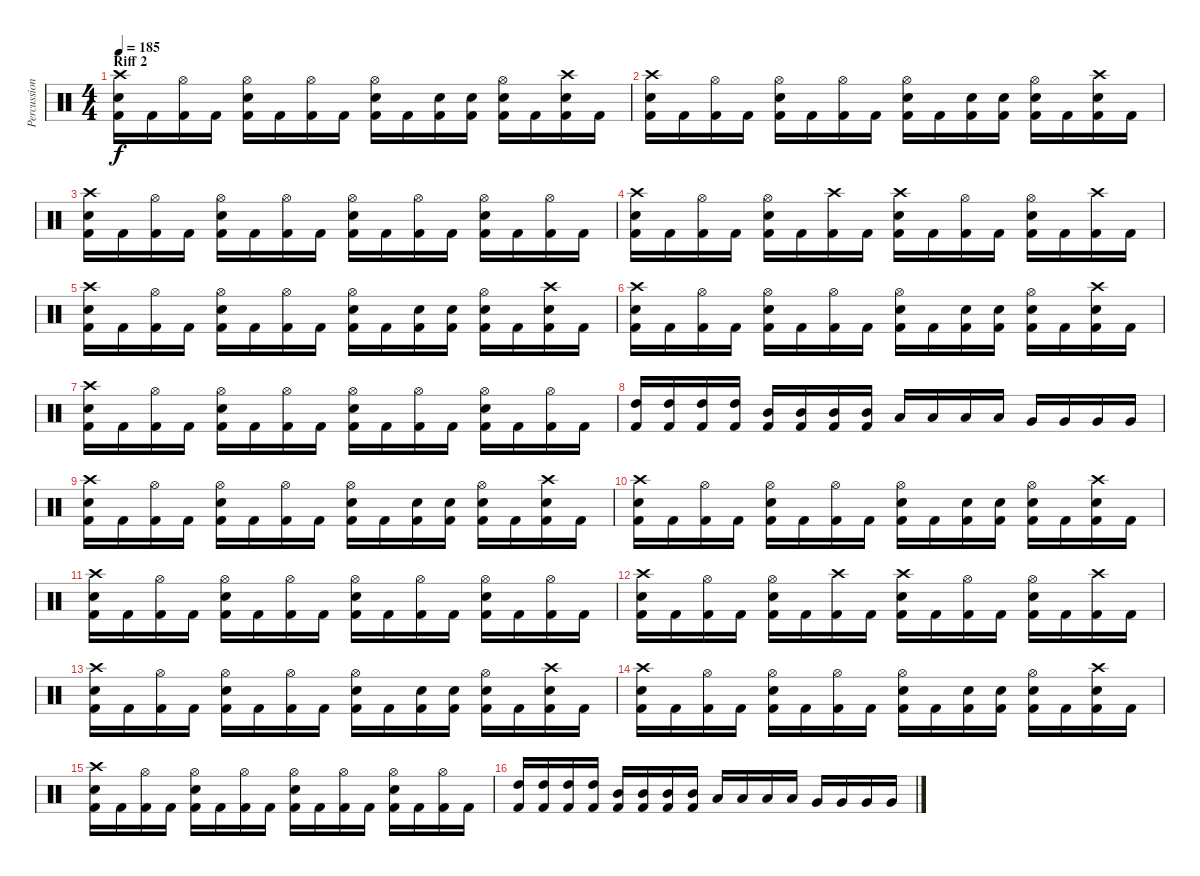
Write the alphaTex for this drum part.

\track ("Percussion" "Percussion") {instrument percussion}
\staff {score}
\articulation defaults
\ts (4 4)
\section ("" "Riff 2")
\tempo 185
\clef neutral
\ks c
("Crash high (hit)" "Snare (hit) 2" "Kick (hit) 2").16{dy f} "Kick (hit) 2".16 ("Hi-Hat (open)" "Kick (hit) 2").16 "Kick (hit) 2".16 ("Hi-Hat (open)" "Snare (hit) 2" "Kick (hit) 2").16 "Kick (hit) 2".16 ("Hi-Hat (open)" "Kick (hit) 2").16 "Kick (hit) 2".16 ("Hi-Hat (open)" "Snare (hit) 2" "Kick (hit) 2").16 "Kick (hit) 2".16 ("Snare (hit) 2" "Kick (hit) 2").16 ("Snare (hit) 2" "Kick (hit) 2").16 ("Hi-Hat (open)" "Snare (hit) 2" "Kick (hit) 2").16 "Kick (hit) 2".16 ("Crash high (hit)" "Snare (hit) 2" "Kick (hit) 2").16 "Kick (hit) 2".16 |
("Crash high (hit)" "Snare (hit) 2" "Kick (hit) 2").16 "Kick (hit) 2".16 ("Hi-Hat (open)" "Kick (hit) 2").16 "Kick (hit) 2".16 ("Hi-Hat (open)" "Snare (hit) 2" "Kick (hit) 2").16 "Kick (hit) 2".16 ("Hi-Hat (open)" "Kick (hit) 2").16 "Kick (hit) 2".16 ("Hi-Hat (open)" "Snare (hit) 2" "Kick (hit) 2").16 "Kick (hit) 2".16 ("Snare (hit) 2" "Kick (hit) 2").16 ("Snare (hit) 2" "Kick (hit) 2").16 ("Hi-Hat (open)" "Snare (hit) 2" "Kick (hit) 2").16 "Kick (hit) 2".16 ("Crash high (hit)" "Snare (hit) 2" "Kick (hit) 2").16 "Kick (hit) 2".16 |
("Crash high (hit)" "Snare (hit) 2" "Kick (hit) 2").16 "Kick (hit) 2".16 ("Hi-Hat (open)" "Kick (hit) 2").16 "Kick (hit) 2".16 ("Hi-Hat (open)" "Snare (hit) 2" "Kick (hit) 2").16 "Kick (hit) 2".16 ("Hi-Hat (open)" "Kick (hit) 2").16 "Kick (hit) 2".16 ("Hi-Hat (open)" "Snare (hit) 2" "Kick (hit) 2").16 "Kick (hit) 2".16 ("Hi-Hat (open)" "Kick (hit) 2").16 "Kick (hit) 2".16 ("Hi-Hat (open)" "Snare (hit) 2" "Kick (hit) 2").16 "Kick (hit) 2".16 ("Hi-Hat (open)" "Kick (hit) 2").16 "Kick (hit) 2".16 |
("Crash high (hit)" "Snare (hit) 2" "Kick (hit) 2").16 "Kick (hit) 2".16 ("Hi-Hat (open)" "Kick (hit) 2").16 "Kick (hit) 2".16 ("Hi-Hat (open)" "Snare (hit) 2" "Kick (hit) 2").16 "Kick (hit) 2".16 ("Crash high (hit)" "Kick (hit) 2").16 "Kick (hit) 2".16 ("Crash high (hit)" "Snare (hit) 2" "Kick (hit) 2").16 "Kick (hit) 2".16 ("Hi-Hat (open)" "Kick (hit) 2").16 "Kick (hit) 2".16 ("Hi-Hat (open)" "Snare (hit) 2" "Kick (hit) 2").16 "Kick (hit) 2".16 ("Crash high (hit)" "Kick (hit) 2").16 "Kick (hit) 2".16 |
("Crash high (hit)" "Snare (hit) 2" "Kick (hit) 2").16 "Kick (hit) 2".16 ("Hi-Hat (open)" "Kick (hit) 2").16 "Kick (hit) 2".16 ("Hi-Hat (open)" "Snare (hit) 2" "Kick (hit) 2").16 "Kick (hit) 2".16 ("Hi-Hat (open)" "Kick (hit) 2").16 "Kick (hit) 2".16 ("Hi-Hat (open)" "Snare (hit) 2" "Kick (hit) 2").16 "Kick (hit) 2".16 ("Snare (hit) 2" "Kick (hit) 2").16 ("Snare (hit) 2" "Kick (hit) 2").16 ("Hi-Hat (open)" "Snare (hit) 2" "Kick (hit) 2").16 "Kick (hit) 2".16 ("Crash high (hit)" "Snare (hit) 2" "Kick (hit) 2").16 "Kick (hit) 2".16 |
("Crash high (hit)" "Snare (hit) 2" "Kick (hit) 2").16 "Kick (hit) 2".16 ("Hi-Hat (open)" "Kick (hit) 2").16 "Kick (hit) 2".16 ("Hi-Hat (open)" "Snare (hit) 2" "Kick (hit) 2").16 "Kick (hit) 2".16 ("Hi-Hat (open)" "Kick (hit) 2").16 "Kick (hit) 2".16 ("Hi-Hat (open)" "Snare (hit) 2" "Kick (hit) 2").16 "Kick (hit) 2".16 ("Snare (hit) 2" "Kick (hit) 2").16 ("Snare (hit) 2" "Kick (hit) 2").16 ("Hi-Hat (open)" "Snare (hit) 2" "Kick (hit) 2").16 "Kick (hit) 2".16 ("Crash high (hit)" "Snare (hit) 2" "Kick (hit) 2").16 "Kick (hit) 2".16 |
("Crash high (hit)" "Snare (hit) 2" "Kick (hit) 2").16 "Kick (hit) 2".16 ("Hi-Hat (open)" "Kick (hit) 2").16 "Kick (hit) 2".16 ("Hi-Hat (open)" "Snare (hit) 2" "Kick (hit) 2").16 "Kick (hit) 2".16 ("Hi-Hat (open)" "Kick (hit) 2").16 "Kick (hit) 2".16 ("Hi-Hat (open)" "Snare (hit) 2" "Kick (hit) 2").16 "Kick (hit) 2".16 ("Hi-Hat (open)" "Kick (hit) 2").16 "Kick (hit) 2".16 ("Hi-Hat (open)" "Snare (hit) 2" "Kick (hit) 2").16 "Kick (hit) 2".16 ("Hi-Hat (open)" "Kick (hit) 2").16 "Kick (hit) 2".16 |
("High Tom (hit)" "Kick (hit) 2").16 ("High Tom (hit)" "Kick (hit) 2").16 ("High Tom (hit)" "Kick (hit) 2").16 ("High Tom (hit)" "Kick (hit) 2").16 ("Mid Tom (hit)" "Kick (hit) 2").16 ("Mid Tom (hit)" "Kick (hit) 2").16 ("Mid Tom (hit)" "Kick (hit) 2").16 ("Mid Tom (hit)" "Kick (hit) 2").16 "Low Tom (hit)".16 "Low Tom (hit)".16 "Low Tom (hit)".16 "Low Tom (hit)".16 "Very Low Tom (hit)".16 "Very Low Tom (hit)".16 "Very Low Tom (hit)".16 "Very Low Tom (hit)".16 |
("Crash high (hit)" "Snare (hit) 2" "Kick (hit) 2").16 "Kick (hit) 2".16 ("Hi-Hat (open)" "Kick (hit) 2").16 "Kick (hit) 2".16 ("Hi-Hat (open)" "Snare (hit) 2" "Kick (hit) 2").16 "Kick (hit) 2".16 ("Hi-Hat (open)" "Kick (hit) 2").16 "Kick (hit) 2".16 ("Hi-Hat (open)" "Snare (hit) 2" "Kick (hit) 2").16 "Kick (hit) 2".16 ("Snare (hit) 2" "Kick (hit) 2").16 ("Snare (hit) 2" "Kick (hit) 2").16 ("Hi-Hat (open)" "Snare (hit) 2" "Kick (hit) 2").16 "Kick (hit) 2".16 ("Crash high (hit)" "Snare (hit) 2" "Kick (hit) 2").16 "Kick (hit) 2".16 |
("Crash high (hit)" "Snare (hit) 2" "Kick (hit) 2").16 "Kick (hit) 2".16 ("Hi-Hat (open)" "Kick (hit) 2").16 "Kick (hit) 2".16 ("Hi-Hat (open)" "Snare (hit) 2" "Kick (hit) 2").16 "Kick (hit) 2".16 ("Hi-Hat (open)" "Kick (hit) 2").16 "Kick (hit) 2".16 ("Hi-Hat (open)" "Snare (hit) 2" "Kick (hit) 2").16 "Kick (hit) 2".16 ("Snare (hit) 2" "Kick (hit) 2").16 ("Snare (hit) 2" "Kick (hit) 2").16 ("Hi-Hat (open)" "Snare (hit) 2" "Kick (hit) 2").16 "Kick (hit) 2".16 ("Crash high (hit)" "Snare (hit) 2" "Kick (hit) 2").16 "Kick (hit) 2".16 |
("Crash high (hit)" "Snare (hit) 2" "Kick (hit) 2").16 "Kick (hit) 2".16 ("Hi-Hat (open)" "Kick (hit) 2").16 "Kick (hit) 2".16 ("Hi-Hat (open)" "Snare (hit) 2" "Kick (hit) 2").16 "Kick (hit) 2".16 ("Hi-Hat (open)" "Kick (hit) 2").16 "Kick (hit) 2".16 ("Hi-Hat (open)" "Snare (hit) 2" "Kick (hit) 2").16 "Kick (hit) 2".16 ("Hi-Hat (open)" "Kick (hit) 2").16 "Kick (hit) 2".16 ("Hi-Hat (open)" "Snare (hit) 2" "Kick (hit) 2").16 "Kick (hit) 2".16 ("Hi-Hat (open)" "Kick (hit) 2").16 "Kick (hit) 2".16 |
("Crash high (hit)" "Snare (hit) 2" "Kick (hit) 2").16 "Kick (hit) 2".16 ("Hi-Hat (open)" "Kick (hit) 2").16 "Kick (hit) 2".16 ("Hi-Hat (open)" "Snare (hit) 2" "Kick (hit) 2").16 "Kick (hit) 2".16 ("Crash high (hit)" "Kick (hit) 2").16 "Kick (hit) 2".16 ("Crash high (hit)" "Snare (hit) 2" "Kick (hit) 2").16 "Kick (hit) 2".16 ("Hi-Hat (open)" "Kick (hit) 2").16 "Kick (hit) 2".16 ("Hi-Hat (open)" "Snare (hit) 2" "Kick (hit) 2").16 "Kick (hit) 2".16 ("Crash high (hit)" "Kick (hit) 2").16 "Kick (hit) 2".16 |
("Crash high (hit)" "Snare (hit) 2" "Kick (hit) 2").16 "Kick (hit) 2".16 ("Hi-Hat (open)" "Kick (hit) 2").16 "Kick (hit) 2".16 ("Hi-Hat (open)" "Snare (hit) 2" "Kick (hit) 2").16 "Kick (hit) 2".16 ("Hi-Hat (open)" "Kick (hit) 2").16 "Kick (hit) 2".16 ("Hi-Hat (open)" "Snare (hit) 2" "Kick (hit) 2").16 "Kick (hit) 2".16 ("Snare (hit) 2" "Kick (hit) 2").16 ("Snare (hit) 2" "Kick (hit) 2").16 ("Hi-Hat (open)" "Snare (hit) 2" "Kick (hit) 2").16 "Kick (hit) 2".16 ("Crash high (hit)" "Snare (hit) 2" "Kick (hit) 2").16 "Kick (hit) 2".16 |
("Crash high (hit)" "Snare (hit) 2" "Kick (hit) 2").16 "Kick (hit) 2".16 ("Hi-Hat (open)" "Kick (hit) 2").16 "Kick (hit) 2".16 ("Hi-Hat (open)" "Snare (hit) 2" "Kick (hit) 2").16 "Kick (hit) 2".16 ("Hi-Hat (open)" "Kick (hit) 2").16 "Kick (hit) 2".16 ("Hi-Hat (open)" "Snare (hit) 2" "Kick (hit) 2").16 "Kick (hit) 2".16 ("Snare (hit) 2" "Kick (hit) 2").16 ("Snare (hit) 2" "Kick (hit) 2").16 ("Hi-Hat (open)" "Snare (hit) 2" "Kick (hit) 2").16 "Kick (hit) 2".16 ("Crash high (hit)" "Snare (hit) 2" "Kick (hit) 2").16 "Kick (hit) 2".16 |
("Crash high (hit)" "Snare (hit) 2" "Kick (hit) 2").16 "Kick (hit) 2".16 ("Hi-Hat (open)" "Kick (hit) 2").16 "Kick (hit) 2".16 ("Hi-Hat (open)" "Snare (hit) 2" "Kick (hit) 2").16 "Kick (hit) 2".16 ("Hi-Hat (open)" "Kick (hit) 2").16 "Kick (hit) 2".16 ("Hi-Hat (open)" "Snare (hit) 2" "Kick (hit) 2").16 "Kick (hit) 2".16 ("Hi-Hat (open)" "Kick (hit) 2").16 "Kick (hit) 2".16 ("Hi-Hat (open)" "Snare (hit) 2" "Kick (hit) 2").16 "Kick (hit) 2".16 ("Hi-Hat (open)" "Kick (hit) 2").16 "Kick (hit) 2".16 |
("High Tom (hit)" "Kick (hit) 2").16 ("High Tom (hit)" "Kick (hit) 2").16 ("High Tom (hit)" "Kick (hit) 2").16 ("High Tom (hit)" "Kick (hit) 2").16 ("Mid Tom (hit)" "Kick (hit) 2").16 ("Mid Tom (hit)" "Kick (hit) 2").16 ("Mid Tom (hit)" "Kick (hit) 2").16 ("Mid Tom (hit)" "Kick (hit) 2").16 "Low Tom (hit)".16 "Low Tom (hit)".16 "Low Tom (hit)".16 "Low Tom (hit)".16 "Very Low Tom (hit)".16 "Very Low Tom (hit)".16 "Very Low Tom (hit)".16 "Very Low Tom (hit)".16
